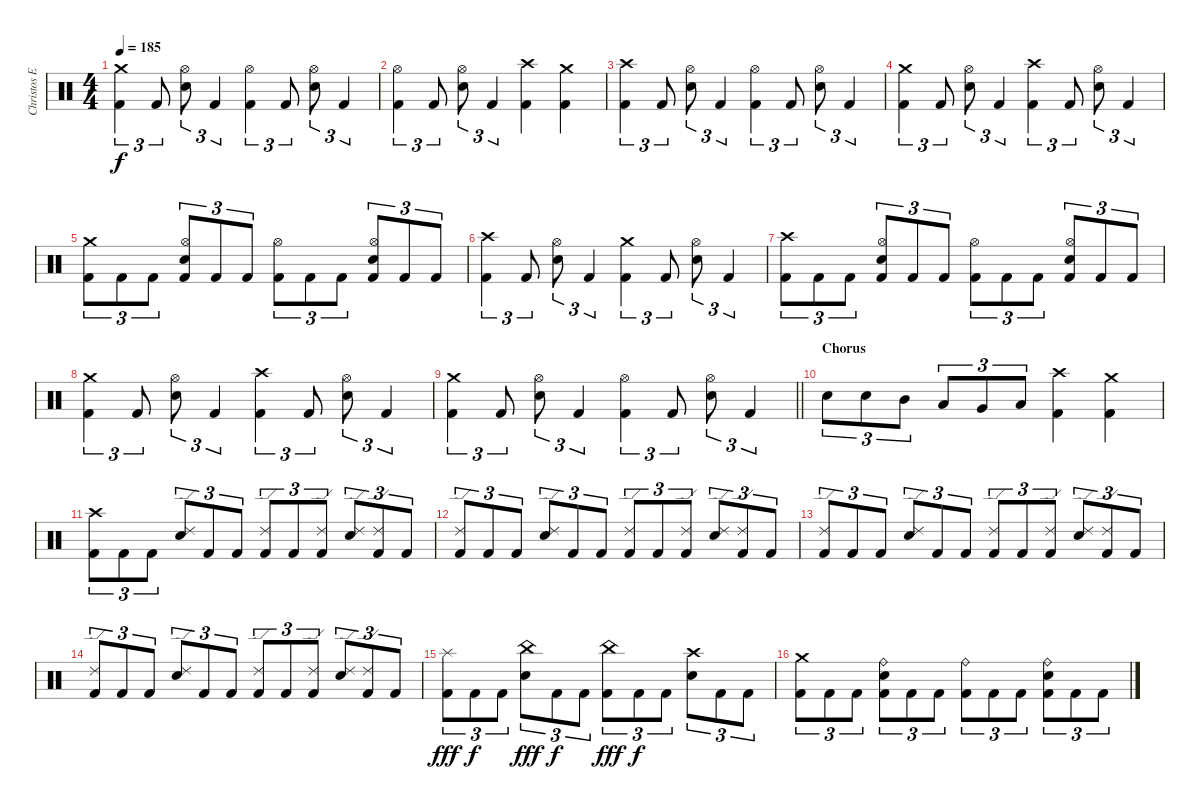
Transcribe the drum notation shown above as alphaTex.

\track ("Christos Ephitimiadis (drums)" "Christos E") {instrument percussion}
\staff {score}
\articulation defaults
\ts (4 4)
\tempo 185
\clef neutral
\ks c
("Crash medium (hit)" "Kick (hit) 2").4{tu (3 2) dy f} "Kick (hit) 2".8{tu (3 2)} ("Hi-Hat (open)" "Snare (hit) 2").8{tu (3 2)} "Kick (hit) 2".4{tu (3 2)} ("Hi-Hat (open)" "Kick (hit) 2").4{tu (3 2)} "Kick (hit) 2".8{tu (3 2)} ("Hi-Hat (open)" "Snare (hit) 2").8{tu (3 2)} "Kick (hit) 2".4{tu (3 2)} |
("Hi-Hat (open)" "Kick (hit) 2").4{tu (3 2)} "Kick (hit) 2".8{tu (3 2)} ("Hi-Hat (open)" "Snare (hit) 2").8{tu (3 2)} "Kick (hit) 2".4{tu (3 2)} ("Crash high (hit)" "Kick (hit) 2").4 ("Crash medium (hit)" "Kick (hit) 2").4 |
("Crash high (hit)" "Kick (hit) 2").4{tu (3 2)} "Kick (hit) 2".8{tu (3 2)} ("Hi-Hat (open)" "Snare (hit) 2").8{tu (3 2)} "Kick (hit) 2".4{tu (3 2)} ("Hi-Hat (open)" "Kick (hit) 2").4{tu (3 2)} "Kick (hit) 2".8{tu (3 2)} ("Hi-Hat (open)" "Snare (hit) 2").8{tu (3 2)} "Kick (hit) 2".4{tu (3 2)} |
("Crash medium (hit)" "Kick (hit) 2").4{tu (3 2)} "Kick (hit) 2".8{tu (3 2)} ("Hi-Hat (open)" "Snare (hit) 2").8{tu (3 2)} "Kick (hit) 2".4{tu (3 2)} ("Crash high (hit)" "Kick (hit) 2").4{tu (3 2)} "Kick (hit) 2".8{tu (3 2)} ("Hi-Hat (open)" "Snare (hit) 2").8{tu (3 2)} "Kick (hit) 2".4{tu (3 2)} |
("Crash medium (hit)" "Kick (hit) 2").8{tu (3 2)} "Kick (hit) 2".8{tu (3 2)} "Kick (hit) 2".8{tu (3 2)} ("Hi-Hat (open)" "Snare (hit) 2" "Kick (hit) 2").8{tu (3 2)} "Kick (hit) 2".8{tu (3 2)} "Kick (hit) 2".8{tu (3 2)} ("Hi-Hat (open)" "Kick (hit) 2").8{tu (3 2)} "Kick (hit) 2".8{tu (3 2)} "Kick (hit) 2".8{tu (3 2)} ("Hi-Hat (open)" "Snare (hit) 2" "Kick (hit) 2").8{tu (3 2)} "Kick (hit) 2".8{tu (3 2)} "Kick (hit) 2".8{tu (3 2)} |
("Crash high (hit)" "Kick (hit) 2").4{tu (3 2)} "Kick (hit) 2".8{tu (3 2)} ("Hi-Hat (open)" "Snare (hit) 2").8{tu (3 2)} "Kick (hit) 2".4{tu (3 2)} ("Crash medium (hit)" "Kick (hit) 2").4{tu (3 2)} "Kick (hit) 2".8{tu (3 2)} ("Hi-Hat (open)" "Snare (hit) 2").8{tu (3 2)} "Kick (hit) 2".4{tu (3 2)} |
("Crash high (hit)" "Kick (hit) 2").8{tu (3 2)} "Kick (hit) 2".8{tu (3 2)} "Kick (hit) 2".8{tu (3 2)} ("Hi-Hat (open)" "Snare (hit) 2" "Kick (hit) 2").8{tu (3 2)} "Kick (hit) 2".8{tu (3 2)} "Kick (hit) 2".8{tu (3 2)} ("Hi-Hat (open)" "Kick (hit) 2").8{tu (3 2)} "Kick (hit) 2".8{tu (3 2)} "Kick (hit) 2".8{tu (3 2)} ("Hi-Hat (open)" "Snare (hit) 2" "Kick (hit) 2").8{tu (3 2)} "Kick (hit) 2".8{tu (3 2)} "Kick (hit) 2".8{tu (3 2)} |
("Crash medium (hit)" "Kick (hit) 2").4{tu (3 2)} "Kick (hit) 2".8{tu (3 2)} ("Hi-Hat (open)" "Snare (hit) 2").8{tu (3 2)} "Kick (hit) 2".4{tu (3 2)} ("Crash high (hit)" "Kick (hit) 2").4{tu (3 2)} "Kick (hit) 2".8{tu (3 2)} ("Hi-Hat (open)" "Snare (hit) 2").8{tu (3 2)} "Kick (hit) 2".4{tu (3 2)} |
\barLineRight lightlight
("Crash medium (hit)" "Kick (hit) 2").4{tu (3 2)} "Kick (hit) 2".8{tu (3 2)} ("Hi-Hat (open)" "Snare (hit) 2").8{tu (3 2)} "Kick (hit) 2".4{tu (3 2)} ("Hi-Hat (open)" "Kick (hit) 2").4{tu (3 2)} "Kick (hit) 2".8{tu (3 2)} ("Hi-Hat (open)" "Snare (hit) 2").8{tu (3 2)} "Kick (hit) 2".4{tu (3 2)} |
\section ("" "Chorus")
"Snare (hit) 2".8{tu (3 2)} "Snare (hit) 2".8{tu (3 2)} "Mid Tom (hit)".8{tu (3 2)} "Low Tom (hit)".8{tu (3 2)} "Very Low Tom (hit)".8{tu (3 2)} "Low Floor Tom (hit)".8{tu (3 2)} ("Crash high (hit)" "Kick (hit) 2").4 ("Crash medium (hit)" "Kick (hit) 2").4 |
("Crash high (hit)" "Kick (hit) 2").8{tu (3 2)} "Kick (hit) 2".8{tu (3 2)} "Kick (hit) 2".8{tu (3 2)} ("Ride (edge) 2" "Snare (hit) 2").8{tu (3 2)} "Kick (hit) 2".8{tu (3 2)} "Kick (hit) 2".8{tu (3 2)} ("Ride (edge) 2" "Kick (hit) 2").8{tu (3 2)} "Kick (hit) 2".8{tu (3 2)} ("Ride (edge) 2" "Kick (hit) 2").8{tu (3 2)} ("Ride (edge) 2" "Snare (hit) 2").8{tu (3 2)} ("Ride (edge) 2" "Kick (hit) 2").8{tu (3 2)} "Kick (hit) 2".8{tu (3 2)} |
("Ride (edge) 2" "Kick (hit) 2").8{tu (3 2)} "Kick (hit) 2".8{tu (3 2)} "Kick (hit) 2".8{tu (3 2)} ("Ride (edge) 2" "Snare (hit) 2").8{tu (3 2)} "Kick (hit) 2".8{tu (3 2)} "Kick (hit) 2".8{tu (3 2)} ("Ride (edge) 2" "Kick (hit) 2").8{tu (3 2)} "Kick (hit) 2".8{tu (3 2)} ("Ride (edge) 2" "Kick (hit) 2").8{tu (3 2)} ("Ride (edge) 2" "Snare (hit) 2").8{tu (3 2)} ("Ride (edge) 2" "Kick (hit) 2").8{tu (3 2)} "Kick (hit) 2".8{tu (3 2)} |
("Ride (edge) 2" "Kick (hit) 2").8{tu (3 2)} "Kick (hit) 2".8{tu (3 2)} "Kick (hit) 2".8{tu (3 2)} ("Ride (edge) 2" "Snare (hit) 2").8{tu (3 2)} "Kick (hit) 2".8{tu (3 2)} "Kick (hit) 2".8{tu (3 2)} ("Ride (edge) 2" "Kick (hit) 2").8{tu (3 2)} "Kick (hit) 2".8{tu (3 2)} ("Ride (edge) 2" "Kick (hit) 2").8{tu (3 2)} ("Ride (edge) 2" "Snare (hit) 2").8{tu (3 2)} ("Ride (edge) 2" "Kick (hit) 2").8{tu (3 2)} "Kick (hit) 2".8{tu (3 2)} |
("Ride (edge) 2" "Kick (hit) 2").8{tu (3 2)} "Kick (hit) 2".8{tu (3 2)} "Kick (hit) 2".8{tu (3 2)} ("Ride (edge) 2" "Snare (hit) 2").8{tu (3 2)} "Kick (hit) 2".8{tu (3 2)} "Kick (hit) 2".8{tu (3 2)} ("Ride (edge) 2" "Kick (hit) 2").8{tu (3 2)} "Kick (hit) 2".8{tu (3 2)} ("Ride (edge) 2" "Kick (hit) 2").8{tu (3 2)} ("Ride (edge) 2" "Snare (hit) 2").8{tu (3 2)} ("Ride (edge) 2" "Kick (hit) 2").8{tu (3 2)} "Kick (hit) 2".8{tu (3 2)} |
("Splash (hit)" "Kick (hit) 2").8{tu (3 2) dy fff} "Kick (hit) 2".8{tu (3 2) dy f} "Kick (hit) 2".8{tu (3 2)} ("China (hit)" "Snare (hit) 2").8{tu (3 2) dy fff} "Kick (hit) 2".8{tu (3 2) dy f} "Kick (hit) 2".8{tu (3 2)} ("China (hit)" "Kick (hit) 2").8{tu (3 2) dy fff} "Kick (hit) 2".8{tu (3 2) dy f} "Kick (hit) 2".8{tu (3 2)} ("Crash high (hit)" "Snare (hit) 2").8{tu (3 2)} "Kick (hit) 2".8{tu (3 2)} "Kick (hit) 2".8{tu (3 2)} |
("Crash medium (hit)" "Kick (hit) 2").8{tu (3 2)} "Kick (hit) 2".8{tu (3 2)} "Kick (hit) 2".8{tu (3 2)} ("Ride (bell)" "Snare (hit) 2" "Kick (hit) 2").8{tu (3 2)} "Kick (hit) 2".8{tu (3 2)} "Kick (hit) 2".8{tu (3 2)} ("Ride (bell)" "Kick (hit) 2").8{tu (3 2)} "Kick (hit) 2".8{tu (3 2)} "Kick (hit) 2".8{tu (3 2)} ("Ride (bell)" "Snare (hit) 2" "Kick (hit) 2").8{tu (3 2)} "Kick (hit) 2".8{tu (3 2)} "Kick (hit) 2".8{tu (3 2)}
